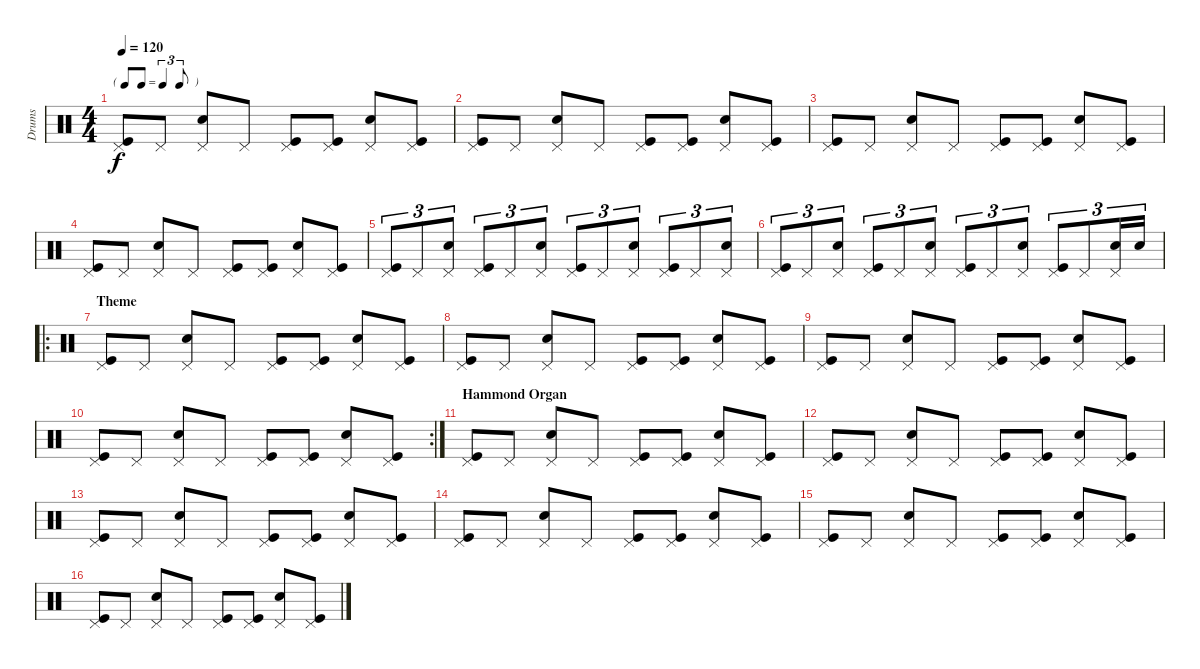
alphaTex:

\track ("Drums" "Drums") {instrument percussion}
\staff {score}
\articulation defaults
\ts (4 4)
\tf triplet8th
\tempo 120
\clef neutral
\ks c
("Pedal Hi-Hat (hit)" "Kick (hit)").8{dy f} "Pedal Hi-Hat (hit)".8 ("Pedal Hi-Hat (hit)" "Snare (hit) 2").8 "Pedal Hi-Hat (hit)".8 ("Pedal Hi-Hat (hit)" "Kick (hit)").8 ("Pedal Hi-Hat (hit)" "Kick (hit)").8 ("Pedal Hi-Hat (hit)" "Snare (hit) 2").8 ("Pedal Hi-Hat (hit)" "Kick (hit)").8 |
("Pedal Hi-Hat (hit)" "Kick (hit)").8 "Pedal Hi-Hat (hit)".8 ("Pedal Hi-Hat (hit)" "Snare (hit) 2").8 "Pedal Hi-Hat (hit)".8 ("Pedal Hi-Hat (hit)" "Kick (hit)").8 ("Pedal Hi-Hat (hit)" "Kick (hit)").8 ("Pedal Hi-Hat (hit)" "Snare (hit) 2").8 ("Pedal Hi-Hat (hit)" "Kick (hit)").8 |
("Pedal Hi-Hat (hit)" "Kick (hit)").8 "Pedal Hi-Hat (hit)".8 ("Pedal Hi-Hat (hit)" "Snare (hit) 2").8 "Pedal Hi-Hat (hit)".8 ("Pedal Hi-Hat (hit)" "Kick (hit)").8 ("Pedal Hi-Hat (hit)" "Kick (hit)").8 ("Pedal Hi-Hat (hit)" "Snare (hit) 2").8 ("Pedal Hi-Hat (hit)" "Kick (hit)").8 |
("Pedal Hi-Hat (hit)" "Kick (hit)").8 "Pedal Hi-Hat (hit)".8 ("Pedal Hi-Hat (hit)" "Snare (hit) 2").8 "Pedal Hi-Hat (hit)".8 ("Pedal Hi-Hat (hit)" "Kick (hit)").8 ("Pedal Hi-Hat (hit)" "Kick (hit)").8 ("Pedal Hi-Hat (hit)" "Snare (hit) 2").8 ("Pedal Hi-Hat (hit)" "Kick (hit)").8 |
("Pedal Hi-Hat (hit)" "Kick (hit)").8{tu (3 2)} "Pedal Hi-Hat (hit)".8{tu (3 2)} ("Pedal Hi-Hat (hit)" "Snare (hit) 2").8{tu (3 2)} ("Pedal Hi-Hat (hit)" "Kick (hit)").8{tu (3 2)} "Pedal Hi-Hat (hit)".8{tu (3 2)} ("Pedal Hi-Hat (hit)" "Snare (hit) 2").8{tu (3 2)} ("Pedal Hi-Hat (hit)" "Kick (hit)").8{tu (3 2)} "Pedal Hi-Hat (hit)".8{tu (3 2)} ("Pedal Hi-Hat (hit)" "Snare (hit) 2").8{tu (3 2)} ("Pedal Hi-Hat (hit)" "Kick (hit)").8{tu (3 2)} "Pedal Hi-Hat (hit)".8{tu (3 2)} ("Pedal Hi-Hat (hit)" "Snare (hit) 2").8{tu (3 2)} |
("Pedal Hi-Hat (hit)" "Kick (hit)").8{tu (3 2)} "Pedal Hi-Hat (hit)".8{tu (3 2)} ("Pedal Hi-Hat (hit)" "Snare (hit) 2").8{tu (3 2)} ("Pedal Hi-Hat (hit)" "Kick (hit)").8{tu (3 2)} "Pedal Hi-Hat (hit)".8{tu (3 2)} ("Pedal Hi-Hat (hit)" "Snare (hit) 2").8{tu (3 2)} ("Pedal Hi-Hat (hit)" "Kick (hit)").8{tu (3 2)} "Pedal Hi-Hat (hit)".8{tu (3 2)} ("Pedal Hi-Hat (hit)" "Snare (hit) 2").8{tu (3 2)} ("Pedal Hi-Hat (hit)" "Kick (hit)").8{tu (3 2)} "Pedal Hi-Hat (hit)".8{tu (3 2)} ("Pedal Hi-Hat (hit)" "Snare (hit) 2").16{tu (3 2)} "Snare (hit) 2".16{tu (3 2)} |
\ro
\section ("" "Theme")
("Pedal Hi-Hat (hit)" "Kick (hit)").8 "Pedal Hi-Hat (hit)".8 ("Pedal Hi-Hat (hit)" "Snare (hit) 2").8 "Pedal Hi-Hat (hit)".8 ("Pedal Hi-Hat (hit)" "Kick (hit)").8 ("Pedal Hi-Hat (hit)" "Kick (hit)").8 ("Pedal Hi-Hat (hit)" "Snare (hit) 2").8 ("Pedal Hi-Hat (hit)" "Kick (hit)").8 |
("Pedal Hi-Hat (hit)" "Kick (hit)").8 "Pedal Hi-Hat (hit)".8 ("Pedal Hi-Hat (hit)" "Snare (hit) 2").8 "Pedal Hi-Hat (hit)".8 ("Pedal Hi-Hat (hit)" "Kick (hit)").8 ("Pedal Hi-Hat (hit)" "Kick (hit)").8 ("Pedal Hi-Hat (hit)" "Snare (hit) 2").8 ("Pedal Hi-Hat (hit)" "Kick (hit)").8 |
("Pedal Hi-Hat (hit)" "Kick (hit)").8 "Pedal Hi-Hat (hit)".8 ("Pedal Hi-Hat (hit)" "Snare (hit) 2").8 "Pedal Hi-Hat (hit)".8 ("Pedal Hi-Hat (hit)" "Kick (hit)").8 ("Pedal Hi-Hat (hit)" "Kick (hit)").8 ("Pedal Hi-Hat (hit)" "Snare (hit) 2").8 ("Pedal Hi-Hat (hit)" "Kick (hit)").8 |
\rc 2
("Pedal Hi-Hat (hit)" "Kick (hit)").8 "Pedal Hi-Hat (hit)".8 ("Pedal Hi-Hat (hit)" "Snare (hit) 2").8 "Pedal Hi-Hat (hit)".8 ("Pedal Hi-Hat (hit)" "Kick (hit)").8 ("Pedal Hi-Hat (hit)" "Kick (hit)").8 ("Pedal Hi-Hat (hit)" "Snare (hit) 2").8 ("Pedal Hi-Hat (hit)" "Kick (hit)").8 |
\section ("" "Hammond Organ")
("Pedal Hi-Hat (hit)" "Kick (hit)").8 "Pedal Hi-Hat (hit)".8 ("Pedal Hi-Hat (hit)" "Snare (hit) 2").8 "Pedal Hi-Hat (hit)".8 ("Pedal Hi-Hat (hit)" "Kick (hit)").8 ("Pedal Hi-Hat (hit)" "Kick (hit)").8 ("Pedal Hi-Hat (hit)" "Snare (hit) 2").8 ("Pedal Hi-Hat (hit)" "Kick (hit)").8 |
("Pedal Hi-Hat (hit)" "Kick (hit)").8 "Pedal Hi-Hat (hit)".8 ("Pedal Hi-Hat (hit)" "Snare (hit) 2").8 "Pedal Hi-Hat (hit)".8 ("Pedal Hi-Hat (hit)" "Kick (hit)").8 ("Pedal Hi-Hat (hit)" "Kick (hit)").8 ("Pedal Hi-Hat (hit)" "Snare (hit) 2").8 ("Pedal Hi-Hat (hit)" "Kick (hit)").8 |
("Pedal Hi-Hat (hit)" "Kick (hit)").8 "Pedal Hi-Hat (hit)".8 ("Pedal Hi-Hat (hit)" "Snare (hit) 2").8 "Pedal Hi-Hat (hit)".8 ("Pedal Hi-Hat (hit)" "Kick (hit)").8 ("Pedal Hi-Hat (hit)" "Kick (hit)").8 ("Pedal Hi-Hat (hit)" "Snare (hit) 2").8 ("Pedal Hi-Hat (hit)" "Kick (hit)").8 |
("Pedal Hi-Hat (hit)" "Kick (hit)").8 "Pedal Hi-Hat (hit)".8 ("Pedal Hi-Hat (hit)" "Snare (hit) 2").8 "Pedal Hi-Hat (hit)".8 ("Pedal Hi-Hat (hit)" "Kick (hit)").8 ("Pedal Hi-Hat (hit)" "Kick (hit)").8 ("Pedal Hi-Hat (hit)" "Snare (hit) 2").8 ("Pedal Hi-Hat (hit)" "Kick (hit)").8 |
("Pedal Hi-Hat (hit)" "Kick (hit)").8 "Pedal Hi-Hat (hit)".8 ("Pedal Hi-Hat (hit)" "Snare (hit) 2").8 "Pedal Hi-Hat (hit)".8 ("Pedal Hi-Hat (hit)" "Kick (hit)").8 ("Pedal Hi-Hat (hit)" "Kick (hit)").8 ("Pedal Hi-Hat (hit)" "Snare (hit) 2").8 ("Pedal Hi-Hat (hit)" "Kick (hit)").8 |
("Pedal Hi-Hat (hit)" "Kick (hit)").8 "Pedal Hi-Hat (hit)".8 ("Pedal Hi-Hat (hit)" "Snare (hit) 2").8 "Pedal Hi-Hat (hit)".8 ("Pedal Hi-Hat (hit)" "Kick (hit)").8 ("Pedal Hi-Hat (hit)" "Kick (hit)").8 ("Pedal Hi-Hat (hit)" "Snare (hit) 2").8 ("Pedal Hi-Hat (hit)" "Kick (hit)").8
